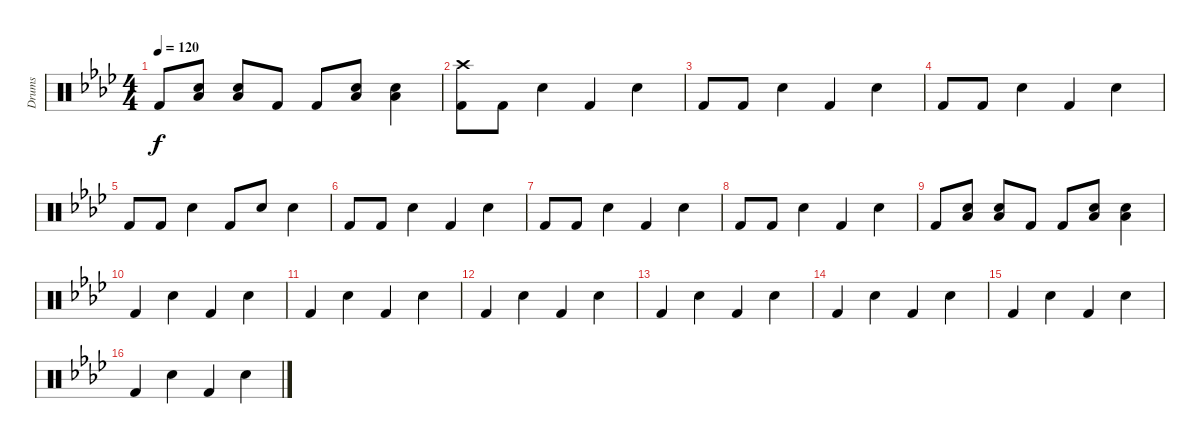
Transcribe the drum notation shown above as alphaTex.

\track ("Drums" "Drums") {instrument percussion}
\staff {score}
\articulation defaults
\ts (4 4)
\tempo 120
\clef neutral
\ks ab "Kick (hit) 2".8{dy f}
("Low Tom (hit)" "Electric Snare (hit)").8 ("Low Tom (hit)" "Electric Snare (hit)").8 "Kick (hit) 2".8 "Kick (hit) 2".8 ("Low Floor Tom (hit)" "Electric Snare (hit)").8 ("Low Floor Tom (hit)" "Electric Snare (hit)").4 |
("Crash high (hit)" "Kick (hit) 2").8 "Kick (hit) 2".8 "Electric Snare (hit)".4 "Kick (hit) 2".4 "Electric Snare (hit)".4 |
"Kick (hit) 2".8 "Kick (hit) 2".8 "Electric Snare (hit)".4 "Kick (hit) 2".4 "Electric Snare (hit)".4 |
"Kick (hit) 2".8 "Kick (hit) 2".8 "Electric Snare (hit)".4 "Kick (hit) 2".4 "Electric Snare (hit)".4 |
"Kick (hit) 2".8 "Kick (hit) 2".8 "Electric Snare (hit)".4 "Kick (hit) 2".8 "Electric Snare (hit)".8 "Electric Snare (hit)".4 |
"Kick (hit) 2".8 "Kick (hit) 2".8 "Electric Snare (hit)".4 "Kick (hit) 2".4 "Electric Snare (hit)".4 |
"Kick (hit) 2".8 "Kick (hit) 2".8 "Electric Snare (hit)".4 "Kick (hit) 2".4 "Electric Snare (hit)".4 |
"Kick (hit) 2".8 "Kick (hit) 2".8 "Electric Snare (hit)".4 "Kick (hit) 2".4 "Electric Snare (hit)".4 |
"Kick (hit) 2".8 ("Low Tom (hit)" "Electric Snare (hit)").8 ("Low Tom (hit)" "Electric Snare (hit)").8 "Kick (hit) 2".8 "Kick (hit) 2".8 ("Low Floor Tom (hit)" "Electric Snare (hit)").8 ("Low Floor Tom (hit)" "Electric Snare (hit)").4 |
"Kick (hit) 2".4 "Electric Snare (hit)".4 "Kick (hit) 2".4 "Electric Snare (hit)".4 |
"Kick (hit) 2".4 "Electric Snare (hit)".4 "Kick (hit) 2".4 "Electric Snare (hit)".4 |
"Kick (hit) 2".4 "Electric Snare (hit)".4 "Kick (hit) 2".4 "Electric Snare (hit)".4 |
"Kick (hit) 2".4 "Electric Snare (hit)".4 "Kick (hit) 2".4 "Electric Snare (hit)".4 |
"Kick (hit) 2".4 "Electric Snare (hit)".4 "Kick (hit) 2".4 "Electric Snare (hit)".4 |
"Kick (hit) 2".4 "Electric Snare (hit)".4 "Kick (hit) 2".4 "Electric Snare (hit)".4 |
"Kick (hit) 2".4 "Electric Snare (hit)".4 "Kick (hit) 2".4 "Electric Snare (hit)".4
